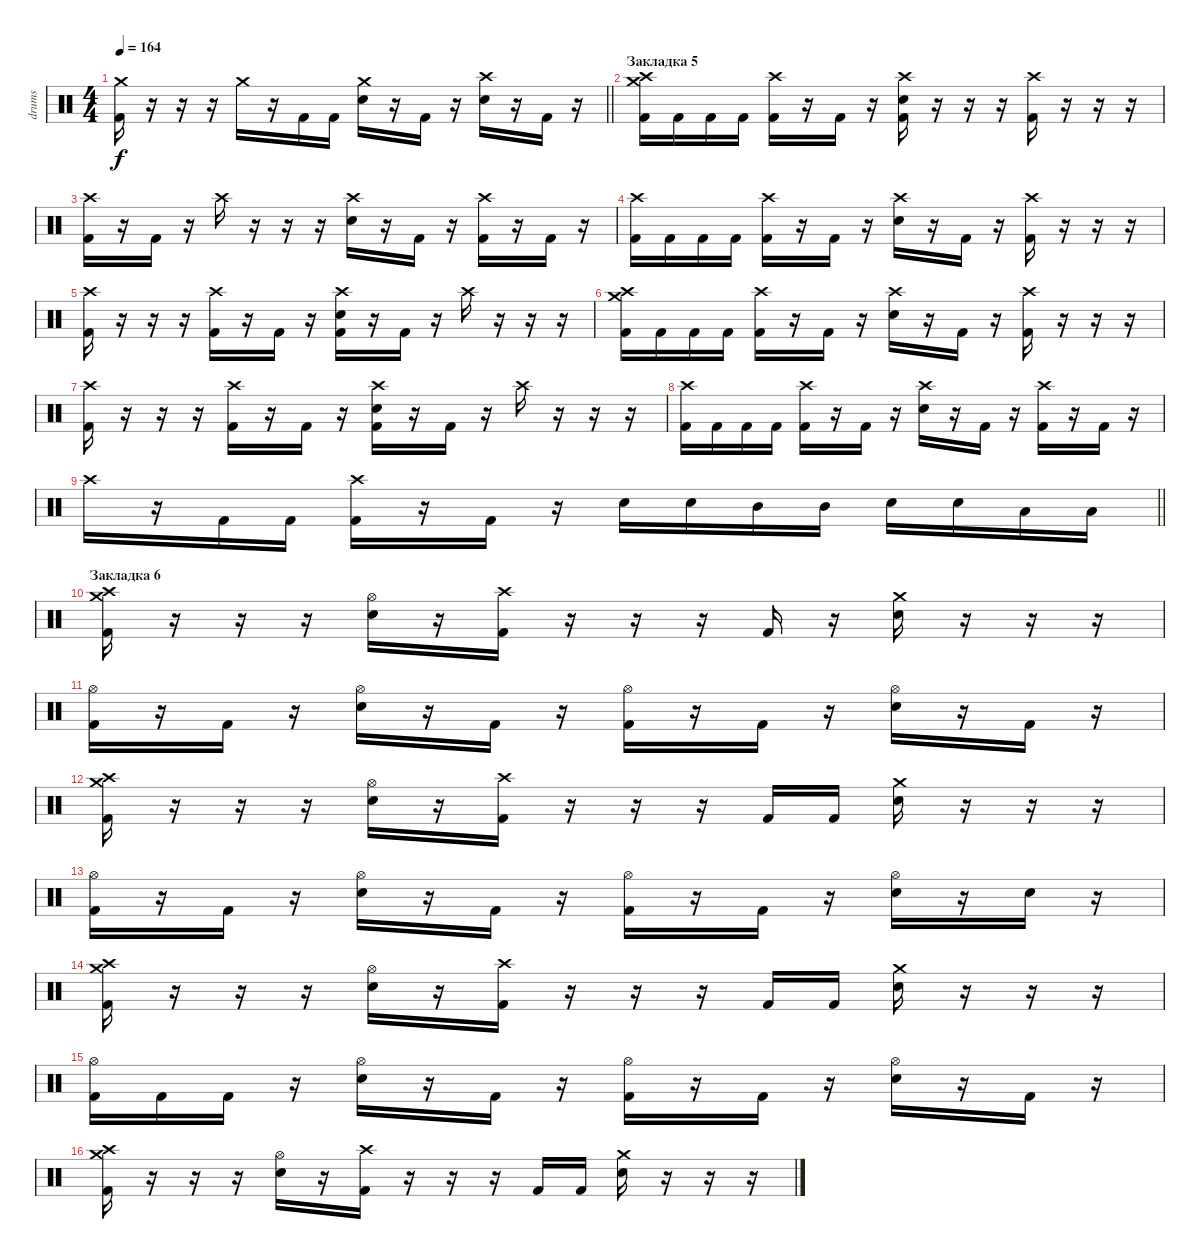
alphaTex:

\track ("drums" "drums") {instrument percussion}
\staff {score}
\articulation defaults
\ts (4 4)
\tempo 164
\clef neutral
\barLineRight lightlight
\ks c
("Crash medium (hit)" "Kick (hit) 2").16{dy f} r.16 r.16 r.16 "Crash medium (hit)".16 r.16 "Kick (hit) 2".16 "Kick (hit) 2".16 ("Crash medium (hit)" "Electric Snare (hit)").16 r.16 "Kick (hit) 2".16 r.16 ("Crash high (hit)" "Electric Snare (hit)").16 r.16 "Kick (hit) 2".16 r.16 |
\section ("" "Закладка 5")
("Crash high (hit)" "Crash medium (hit)" "Kick (hit) 2").16 "Kick (hit) 2".16 "Kick (hit) 2".16 "Kick (hit) 2".16 ("Crash high (hit)" "Kick (hit) 2").16 r.16 "Kick (hit) 2".16 r.16 ("Crash high (hit)" "Electric Snare (hit)" "Kick (hit) 2").16 r.16 r.16 r.16 ("Crash high (hit)" "Kick (hit) 2").16 r.16 r.16 r.16 |
("Crash high (hit)" "Kick (hit) 2").16 r.16 "Kick (hit) 2".16 r.16 "Crash high (hit)".16 r.16 r.16 r.16 ("Crash high (hit)" "Electric Snare (hit)").16 r.16 "Kick (hit) 2".16 r.16 ("Crash high (hit)" "Kick (hit) 2").16 r.16 "Kick (hit) 2".16 r.16 |
("Crash high (hit)" "Kick (hit) 2").16 "Kick (hit) 2".16 "Kick (hit) 2".16 "Kick (hit) 2".16 ("Crash high (hit)" "Kick (hit) 2").16 r.16 "Kick (hit) 2".16 r.16 ("Crash high (hit)" "Electric Snare (hit)").16 r.16 "Kick (hit) 2".16 r.16 ("Crash high (hit)" "Kick (hit) 2").16 r.16 r.16 r.16 |
("Crash high (hit)" "Kick (hit) 2").16 r.16 r.16 r.16 ("Crash high (hit)" "Kick (hit) 2").16 r.16 "Kick (hit) 2".16 r.16 ("Crash high (hit)" "Electric Snare (hit)" "Kick (hit) 2").16 r.16 "Kick (hit) 2".16 r.16 "Crash high (hit)".16 r.16 r.16 r.16 |
("Crash high (hit)" "Crash medium (hit)" "Kick (hit) 2").16 "Kick (hit) 2".16 "Kick (hit) 2".16 "Kick (hit) 2".16 ("Crash high (hit)" "Kick (hit) 2").16 r.16 "Kick (hit) 2".16 r.16 ("Crash high (hit)" "Electric Snare (hit)").16 r.16 "Kick (hit) 2".16 r.16 ("Crash high (hit)" "Kick (hit) 2").16 r.16 r.16 r.16 |
("Crash high (hit)" "Kick (hit) 2").16 r.16 r.16 r.16 ("Crash high (hit)" "Kick (hit) 2").16 r.16 "Kick (hit) 2".16 r.16 ("Crash high (hit)" "Electric Snare (hit)" "Kick (hit) 2").16 r.16 "Kick (hit) 2".16 r.16 "Crash high (hit)".16 r.16 r.16 r.16 |
("Crash high (hit)" "Kick (hit) 2").16 "Kick (hit) 2".16 "Kick (hit) 2".16 "Kick (hit) 2".16 ("Crash high (hit)" "Kick (hit) 2").16 r.16 "Kick (hit) 2".16 r.16 ("Crash high (hit)" "Electric Snare (hit)").16 r.16 "Kick (hit) 2".16 r.16 ("Crash high (hit)" "Kick (hit) 2").16 r.16 "Kick (hit) 2".16 r.16 |
\barLineRight lightlight "Crash high (hit)".16
r.16 "Kick (hit) 2".16 "Kick (hit) 2".16 ("Crash high (hit)" "Kick (hit) 2").16 r.16 "Kick (hit) 2".16 r.16 "Electric Snare (hit)".16 "Electric Snare (hit)".16 "Mid Tom (hit)".16 "Mid Tom (hit)".16 "Electric Snare (hit)".16 "Electric Snare (hit)".16 "Low Floor Tom (hit)".16 "Low Floor Tom (hit)".16 |
\section ("" "Закладка 6")
("Crash medium (hit)" "Crash high (hit)" "Kick (hit) 2").16 r.16 r.16 r.16 ("Hi-Hat (open)" "Electric Snare (hit)").16 r.16 ("Crash high (hit)" "Kick (hit) 2").16 r.16 r.16 r.16 "Kick (hit) 2".16 r.16 ("Crash medium (hit)" "Electric Snare (hit)").16 r.16 r.16 r.16 |
("Hi-Hat (open)" "Kick (hit) 2").16 r.16 "Kick (hit) 2".16 r.16 ("Hi-Hat (open)" "Electric Snare (hit)").16 r.16 "Kick (hit) 2".16 r.16 ("Hi-Hat (open)" "Kick (hit) 2").16 r.16 "Kick (hit) 2".16 r.16 ("Hi-Hat (open)" "Electric Snare (hit)").16 r.16 "Kick (hit) 2".16 r.16 |
("Crash medium (hit)" "Crash high (hit)" "Kick (hit) 2").16 r.16 r.16 r.16 ("Hi-Hat (open)" "Electric Snare (hit)").16 r.16 ("Crash high (hit)" "Kick (hit) 2").16 r.16 r.16 r.16 "Kick (hit) 2".16 "Kick (hit) 2".16 ("Crash medium (hit)" "Electric Snare (hit)").16 r.16 r.16 r.16 |
("Hi-Hat (open)" "Kick (hit) 2").16 r.16 "Kick (hit) 2".16 r.16 ("Hi-Hat (open)" "Electric Snare (hit)").16 r.16 "Kick (hit) 2".16 r.16 ("Hi-Hat (open)" "Kick (hit) 2").16 r.16 "Kick (hit) 2".16 r.16 ("Hi-Hat (open)" "Electric Snare (hit)").16 r.16 "Electric Snare (hit)".16 r.16 |
("Crash medium (hit)" "Crash high (hit)" "Kick (hit) 2").16 r.16 r.16 r.16 ("Hi-Hat (open)" "Electric Snare (hit)").16 r.16 ("Crash high (hit)" "Kick (hit) 2").16 r.16 r.16 r.16 "Kick (hit) 2".16 "Kick (hit) 2".16 ("Crash medium (hit)" "Electric Snare (hit)").16 r.16 r.16 r.16 |
("Hi-Hat (open)" "Kick (hit) 2").16 "Kick (hit) 2".16 "Kick (hit) 2".16 r.16 ("Hi-Hat (open)" "Electric Snare (hit)").16 r.16 "Kick (hit) 2".16 r.16 ("Hi-Hat (open)" "Kick (hit) 2").16 r.16 "Kick (hit) 2".16 r.16 ("Hi-Hat (open)" "Electric Snare (hit)").16 r.16 "Kick (hit) 2".16 r.16 |
("Crash medium (hit)" "Crash high (hit)" "Kick (hit) 2").16 r.16 r.16 r.16 ("Hi-Hat (open)" "Electric Snare (hit)").16 r.16 ("Crash high (hit)" "Kick (hit) 2").16 r.16 r.16 r.16 "Kick (hit) 2".16 "Kick (hit) 2".16 ("Crash medium (hit)" "Electric Snare (hit)").16 r.16 r.16 r.16
